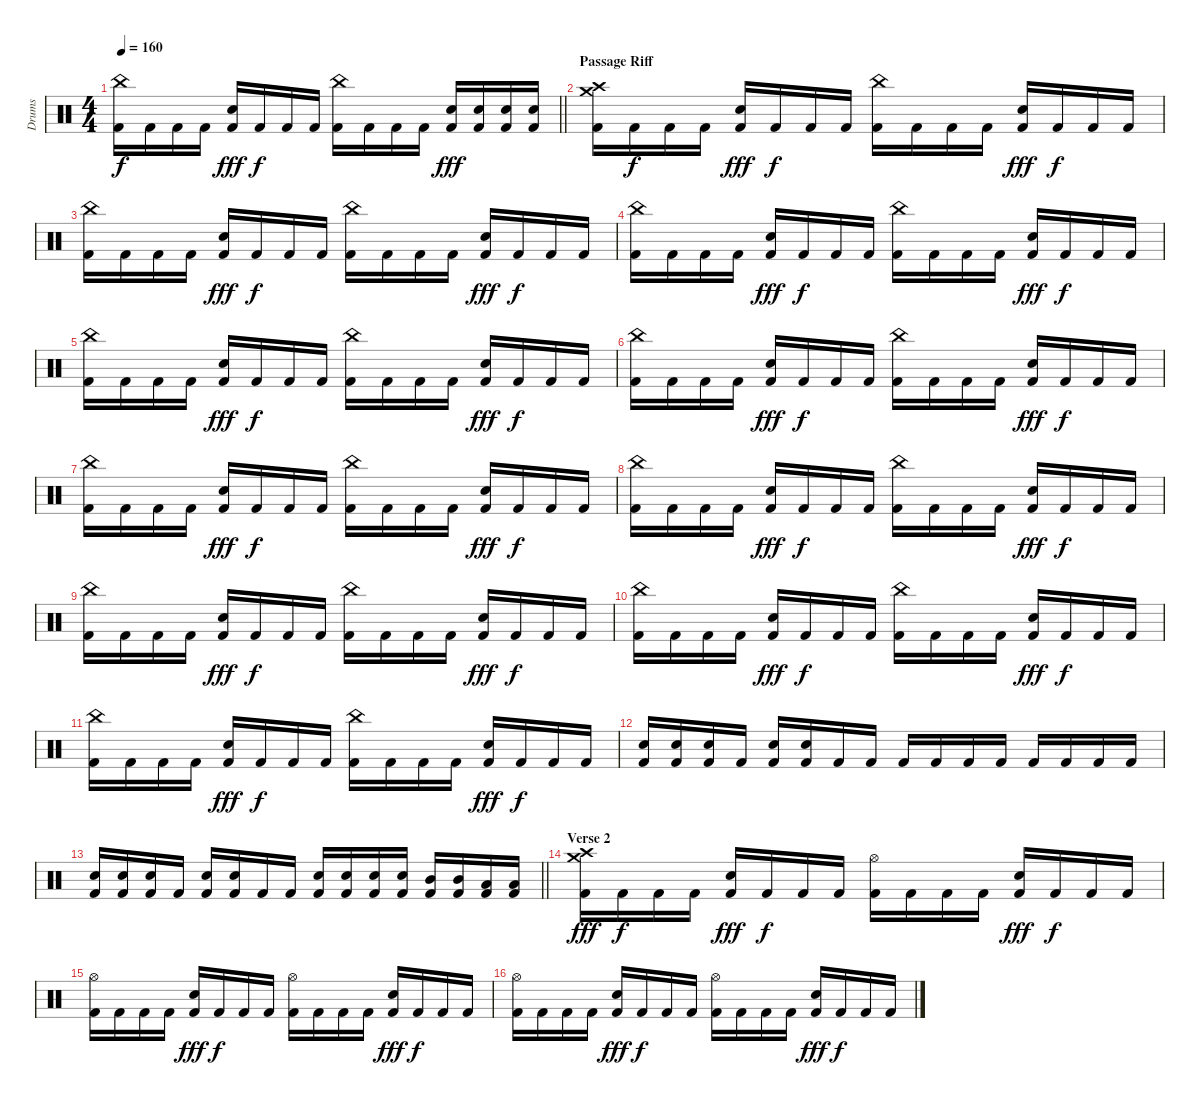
\track ("Drums" "Drums") {instrument percussion}
\staff {score}
\articulation defaults
\ts (4 4)
\tempo 160
\clef neutral
\barLineRight lightlight
\ks c
("China (hit)" "Kick (hit) 2").16{dy f} "Kick (hit) 2".16 "Kick (hit) 2".16 "Kick (hit) 2".16 ("Electric Snare (hit)" "Kick (hit) 2").16{dy fff} "Kick (hit) 2".16{dy f} "Kick (hit) 2".16 "Kick (hit) 2".16 ("China (hit)" "Kick (hit) 2").16 "Kick (hit) 2".16 "Kick (hit) 2".16 "Kick (hit) 2".16 ("Electric Snare (hit)" "Kick (hit) 2").16{dy fff} ("Electric Snare (hit)" "Kick (hit) 2").16 ("Electric Snare (hit)" "Kick (hit) 2").16 ("Electric Snare (hit)" "Kick (hit) 2").16 |
\section ("" "Passage Riff")
("Crash high (hit)" "Crash medium (hit)" "Kick (hit) 2").16 "Kick (hit) 2".16{dy f} "Kick (hit) 2".16 "Kick (hit) 2".16 ("Electric Snare (hit)" "Kick (hit) 2").16{dy fff} "Kick (hit) 2".16{dy f} "Kick (hit) 2".16 "Kick (hit) 2".16 ("China (hit)" "Kick (hit) 2").16 "Kick (hit) 2".16 "Kick (hit) 2".16 "Kick (hit) 2".16 ("Electric Snare (hit)" "Kick (hit) 2").16{dy fff} "Kick (hit) 2".16{dy f} "Kick (hit) 2".16 "Kick (hit) 2".16 |
("China (hit)" "Kick (hit) 2").16 "Kick (hit) 2".16 "Kick (hit) 2".16 "Kick (hit) 2".16 ("Electric Snare (hit)" "Kick (hit) 2").16{dy fff} "Kick (hit) 2".16{dy f} "Kick (hit) 2".16 "Kick (hit) 2".16 ("China (hit)" "Kick (hit) 2").16 "Kick (hit) 2".16 "Kick (hit) 2".16 "Kick (hit) 2".16 ("Electric Snare (hit)" "Kick (hit) 2").16{dy fff} "Kick (hit) 2".16{dy f} "Kick (hit) 2".16 "Kick (hit) 2".16 |
("China (hit)" "Kick (hit) 2").16 "Kick (hit) 2".16 "Kick (hit) 2".16 "Kick (hit) 2".16 ("Electric Snare (hit)" "Kick (hit) 2").16{dy fff} "Kick (hit) 2".16{dy f} "Kick (hit) 2".16 "Kick (hit) 2".16 ("China (hit)" "Kick (hit) 2").16 "Kick (hit) 2".16 "Kick (hit) 2".16 "Kick (hit) 2".16 ("Electric Snare (hit)" "Kick (hit) 2").16{dy fff} "Kick (hit) 2".16{dy f} "Kick (hit) 2".16 "Kick (hit) 2".16 |
("China (hit)" "Kick (hit) 2").16 "Kick (hit) 2".16 "Kick (hit) 2".16 "Kick (hit) 2".16 ("Electric Snare (hit)" "Kick (hit) 2").16{dy fff} "Kick (hit) 2".16{dy f} "Kick (hit) 2".16 "Kick (hit) 2".16 ("China (hit)" "Kick (hit) 2").16 "Kick (hit) 2".16 "Kick (hit) 2".16 "Kick (hit) 2".16 ("Electric Snare (hit)" "Kick (hit) 2").16{dy fff} "Kick (hit) 2".16{dy f} "Kick (hit) 2".16 "Kick (hit) 2".16 |
("China (hit)" "Kick (hit) 2").16 "Kick (hit) 2".16 "Kick (hit) 2".16 "Kick (hit) 2".16 ("Electric Snare (hit)" "Kick (hit) 2").16{dy fff} "Kick (hit) 2".16{dy f} "Kick (hit) 2".16 "Kick (hit) 2".16 ("China (hit)" "Kick (hit) 2").16 "Kick (hit) 2".16 "Kick (hit) 2".16 "Kick (hit) 2".16 ("Electric Snare (hit)" "Kick (hit) 2").16{dy fff} "Kick (hit) 2".16{dy f} "Kick (hit) 2".16 "Kick (hit) 2".16 |
("China (hit)" "Kick (hit) 2").16 "Kick (hit) 2".16 "Kick (hit) 2".16 "Kick (hit) 2".16 ("Electric Snare (hit)" "Kick (hit) 2").16{dy fff} "Kick (hit) 2".16{dy f} "Kick (hit) 2".16 "Kick (hit) 2".16 ("China (hit)" "Kick (hit) 2").16 "Kick (hit) 2".16 "Kick (hit) 2".16 "Kick (hit) 2".16 ("Electric Snare (hit)" "Kick (hit) 2").16{dy fff} "Kick (hit) 2".16{dy f} "Kick (hit) 2".16 "Kick (hit) 2".16 |
("China (hit)" "Kick (hit) 2").16 "Kick (hit) 2".16 "Kick (hit) 2".16 "Kick (hit) 2".16 ("Electric Snare (hit)" "Kick (hit) 2").16{dy fff} "Kick (hit) 2".16{dy f} "Kick (hit) 2".16 "Kick (hit) 2".16 ("China (hit)" "Kick (hit) 2").16 "Kick (hit) 2".16 "Kick (hit) 2".16 "Kick (hit) 2".16 ("Electric Snare (hit)" "Kick (hit) 2").16{dy fff} "Kick (hit) 2".16{dy f} "Kick (hit) 2".16 "Kick (hit) 2".16 |
("China (hit)" "Kick (hit) 2").16 "Kick (hit) 2".16 "Kick (hit) 2".16 "Kick (hit) 2".16 ("Electric Snare (hit)" "Kick (hit) 2").16{dy fff} "Kick (hit) 2".16{dy f} "Kick (hit) 2".16 "Kick (hit) 2".16 ("China (hit)" "Kick (hit) 2").16 "Kick (hit) 2".16 "Kick (hit) 2".16 "Kick (hit) 2".16 ("Electric Snare (hit)" "Kick (hit) 2").16{dy fff} "Kick (hit) 2".16{dy f} "Kick (hit) 2".16 "Kick (hit) 2".16 |
("China (hit)" "Kick (hit) 2").16 "Kick (hit) 2".16 "Kick (hit) 2".16 "Kick (hit) 2".16 ("Electric Snare (hit)" "Kick (hit) 2").16{dy fff} "Kick (hit) 2".16{dy f} "Kick (hit) 2".16 "Kick (hit) 2".16 ("China (hit)" "Kick (hit) 2").16 "Kick (hit) 2".16 "Kick (hit) 2".16 "Kick (hit) 2".16 ("Electric Snare (hit)" "Kick (hit) 2").16{dy fff} "Kick (hit) 2".16{dy f} "Kick (hit) 2".16 "Kick (hit) 2".16 |
("China (hit)" "Kick (hit) 2").16 "Kick (hit) 2".16 "Kick (hit) 2".16 "Kick (hit) 2".16 ("Electric Snare (hit)" "Kick (hit) 2").16{dy fff} "Kick (hit) 2".16{dy f} "Kick (hit) 2".16 "Kick (hit) 2".16 ("China (hit)" "Kick (hit) 2").16 "Kick (hit) 2".16 "Kick (hit) 2".16 "Kick (hit) 2".16 ("Electric Snare (hit)" "Kick (hit) 2").16{dy fff} "Kick (hit) 2".16{dy f} "Kick (hit) 2".16 "Kick (hit) 2".16 |
("Electric Snare (hit)" "Kick (hit) 2").16 ("Electric Snare (hit)" "Kick (hit) 2").16 ("Electric Snare (hit)" "Kick (hit) 2").16 "Kick (hit) 2".16 ("Electric Snare (hit)" "Kick (hit) 2").16 ("Electric Snare (hit)" "Kick (hit) 2").16 "Kick (hit) 2".16 "Kick (hit) 2".16 "Kick (hit) 2".16 "Kick (hit) 2".16 "Kick (hit) 2".16 "Kick (hit) 2".16 "Kick (hit) 2".16 "Kick (hit) 2".16 "Kick (hit) 2".16 "Kick (hit) 2".16 |
\barLineRight lightlight
("Electric Snare (hit)" "Kick (hit) 2").16 ("Electric Snare (hit)" "Kick (hit) 2").16 ("Electric Snare (hit)" "Kick (hit) 2").16 "Kick (hit) 2".16 ("Electric Snare (hit)" "Kick (hit) 2").16 ("Electric Snare (hit)" "Kick (hit) 2").16 "Kick (hit) 2".16 "Kick (hit) 2".16 ("Electric Snare (hit)" "Kick (hit) 2").16 ("Electric Snare (hit)" "Kick (hit) 2").16 ("Electric Snare (hit)" "Kick (hit) 2").16 ("Electric Snare (hit)" "Kick (hit) 2").16 ("Mid Tom (hit)" "Kick (hit) 2").16 ("Mid Tom (hit)" "Kick (hit) 2").16 ("Low Tom (hit)" "Kick (hit) 2").16 ("Low Tom (hit)" "Kick (hit) 2").16 |
\section ("" "Verse 2")
("Crash high (hit)" "Crash medium (hit)" "Kick (hit) 2").16{dy fff} "Kick (hit) 2".16{dy f} "Kick (hit) 2".16 "Kick (hit) 2".16 ("Electric Snare (hit)" "Kick (hit) 2").16{dy fff} "Kick (hit) 2".16{dy f} "Kick (hit) 2".16 "Kick (hit) 2".16 ("Hi-Hat (open)" "Kick (hit) 2").16 "Kick (hit) 2".16 "Kick (hit) 2".16 "Kick (hit) 2".16 ("Electric Snare (hit)" "Kick (hit) 2").16{dy fff} "Kick (hit) 2".16{dy f} "Kick (hit) 2".16 "Kick (hit) 2".16 |
("Hi-Hat (open)" "Kick (hit) 2").16 "Kick (hit) 2".16 "Kick (hit) 2".16 "Kick (hit) 2".16 ("Electric Snare (hit)" "Kick (hit) 2").16{dy fff} "Kick (hit) 2".16{dy f} "Kick (hit) 2".16 "Kick (hit) 2".16 ("Hi-Hat (open)" "Kick (hit) 2").16 "Kick (hit) 2".16 "Kick (hit) 2".16 "Kick (hit) 2".16 ("Electric Snare (hit)" "Kick (hit) 2").16{dy fff} "Kick (hit) 2".16{dy f} "Kick (hit) 2".16 "Kick (hit) 2".16 |
("Hi-Hat (open)" "Kick (hit) 2").16 "Kick (hit) 2".16 "Kick (hit) 2".16 "Kick (hit) 2".16 ("Electric Snare (hit)" "Kick (hit) 2").16{dy fff} "Kick (hit) 2".16{dy f} "Kick (hit) 2".16 "Kick (hit) 2".16 ("Hi-Hat (open)" "Kick (hit) 2").16 "Kick (hit) 2".16 "Kick (hit) 2".16 "Kick (hit) 2".16 ("Electric Snare (hit)" "Kick (hit) 2").16{dy fff} "Kick (hit) 2".16{dy f} "Kick (hit) 2".16 "Kick (hit) 2".16
